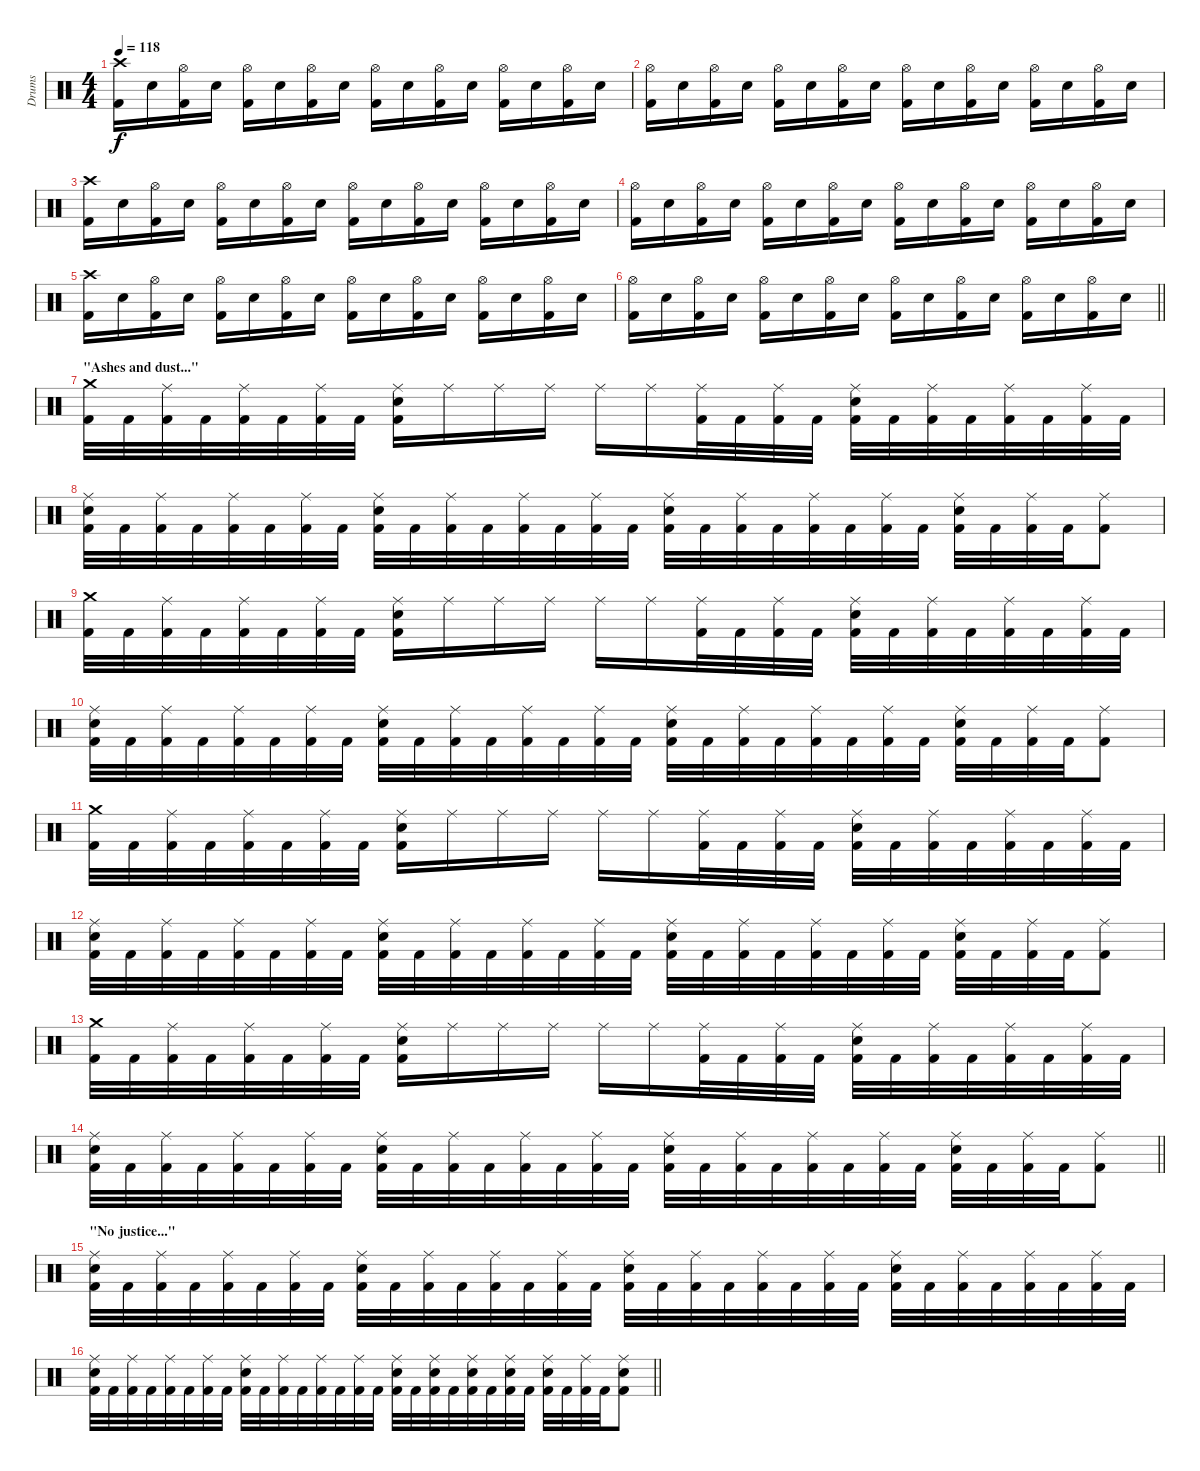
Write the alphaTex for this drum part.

\track ("Drums" "Drums") {instrument percussion}
\staff {score}
\articulation defaults
\ts (4 4)
\tempo 118
\clef neutral
\ks c
("Crash high (hit)" "Kick (hit) 2").16{dy f} "Electric Snare (hit)".16 ("Hi-Hat (open)" "Kick (hit) 2").16 "Electric Snare (hit)".16 ("Hi-Hat (open)" "Kick (hit) 2").16 "Electric Snare (hit)".16 ("Hi-Hat (open)" "Kick (hit) 2").16 "Electric Snare (hit)".16 ("Hi-Hat (open)" "Kick (hit) 2").16 "Electric Snare (hit)".16 ("Hi-Hat (open)" "Kick (hit) 2").16 "Electric Snare (hit)".16 ("Hi-Hat (open)" "Kick (hit) 2").16 "Electric Snare (hit)".16 ("Hi-Hat (open)" "Kick (hit) 2").16 "Electric Snare (hit)".16 |
("Hi-Hat (open)" "Kick (hit) 2").16 "Electric Snare (hit)".16 ("Hi-Hat (open)" "Kick (hit) 2").16 "Electric Snare (hit)".16 ("Hi-Hat (open)" "Kick (hit) 2").16 "Electric Snare (hit)".16 ("Hi-Hat (open)" "Kick (hit) 2").16 "Electric Snare (hit)".16 ("Hi-Hat (open)" "Kick (hit) 2").16 "Electric Snare (hit)".16 ("Hi-Hat (open)" "Kick (hit) 2").16 "Electric Snare (hit)".16 ("Hi-Hat (open)" "Kick (hit) 2").16 "Electric Snare (hit)".16 ("Hi-Hat (open)" "Kick (hit) 2").16 "Electric Snare (hit)".16 |
("Crash high (hit)" "Kick (hit) 2").16 "Electric Snare (hit)".16 ("Hi-Hat (open)" "Kick (hit) 2").16 "Electric Snare (hit)".16 ("Hi-Hat (open)" "Kick (hit) 2").16 "Electric Snare (hit)".16 ("Hi-Hat (open)" "Kick (hit) 2").16 "Electric Snare (hit)".16 ("Hi-Hat (open)" "Kick (hit) 2").16 "Electric Snare (hit)".16 ("Hi-Hat (open)" "Kick (hit) 2").16 "Electric Snare (hit)".16 ("Hi-Hat (open)" "Kick (hit) 2").16 "Electric Snare (hit)".16 ("Hi-Hat (open)" "Kick (hit) 2").16 "Electric Snare (hit)".16 |
("Hi-Hat (open)" "Kick (hit) 2").16 "Electric Snare (hit)".16 ("Hi-Hat (open)" "Kick (hit) 2").16 "Electric Snare (hit)".16 ("Hi-Hat (open)" "Kick (hit) 2").16 "Electric Snare (hit)".16 ("Hi-Hat (open)" "Kick (hit) 2").16 "Electric Snare (hit)".16 ("Hi-Hat (open)" "Kick (hit) 2").16 "Electric Snare (hit)".16 ("Hi-Hat (open)" "Kick (hit) 2").16 "Electric Snare (hit)".16 ("Hi-Hat (open)" "Kick (hit) 2").16 "Electric Snare (hit)".16 ("Hi-Hat (open)" "Kick (hit) 2").16 "Electric Snare (hit)".16 |
("Crash high (hit)" "Kick (hit) 2").16 "Electric Snare (hit)".16 ("Hi-Hat (open)" "Kick (hit) 2").16 "Electric Snare (hit)".16 ("Hi-Hat (open)" "Kick (hit) 2").16 "Electric Snare (hit)".16 ("Hi-Hat (open)" "Kick (hit) 2").16 "Electric Snare (hit)".16 ("Hi-Hat (open)" "Kick (hit) 2").16 "Electric Snare (hit)".16 ("Hi-Hat (open)" "Kick (hit) 2").16 "Electric Snare (hit)".16 ("Hi-Hat (open)" "Kick (hit) 2").16 "Electric Snare (hit)".16 ("Hi-Hat (open)" "Kick (hit) 2").16 "Electric Snare (hit)".16 |
\barLineRight lightlight
("Hi-Hat (open)" "Kick (hit) 2").16 "Electric Snare (hit)".16 ("Hi-Hat (open)" "Kick (hit) 2").16 "Electric Snare (hit)".16 ("Hi-Hat (open)" "Kick (hit) 2").16 "Electric Snare (hit)".16 ("Hi-Hat (open)" "Kick (hit) 2").16 "Electric Snare (hit)".16 ("Hi-Hat (open)" "Kick (hit) 2").16 "Electric Snare (hit)".16 ("Hi-Hat (open)" "Kick (hit) 2").16 "Electric Snare (hit)".16 ("Hi-Hat (open)" "Kick (hit) 2").16 "Electric Snare (hit)".16 ("Hi-Hat (open)" "Kick (hit) 2").16 "Electric Snare (hit)".16 |
\section ("" "\"Ashes and dust...\"")
("Crash medium (hit)" "Kick (hit) 2").32 "Kick (hit) 2".32 ("Ride (middle)" "Kick (hit) 2").32 "Kick (hit) 2".32 ("Ride (middle)" "Kick (hit) 2").32 "Kick (hit) 2".32 ("Ride (middle)" "Kick (hit) 2").32 "Kick (hit) 2".32 ("Ride (middle)" "Electric Snare (hit)" "Kick (hit) 2").16 "Ride (middle)".16 "Ride (middle)".16 "Ride (middle)".16 "Ride (middle)".16 "Ride (middle)".16 ("Ride (middle)" "Kick (hit) 2").32 "Kick (hit) 2".32 ("Ride (middle)" "Kick (hit) 2").32 "Kick (hit) 2".32 ("Ride (middle)" "Electric Snare (hit)" "Kick (hit) 2").32 "Kick (hit) 2".32 ("Ride (middle)" "Kick (hit) 2").32 "Kick (hit) 2".32 ("Ride (middle)" "Kick (hit) 2").32 "Kick (hit) 2".32 ("Ride (middle)" "Kick (hit) 2").32 "Kick (hit) 2".32 |
("Ride (middle)" "Electric Snare (hit)" "Kick (hit) 2").32 "Kick (hit) 2".32 ("Ride (middle)" "Kick (hit) 2").32 "Kick (hit) 2".32 ("Ride (middle)" "Kick (hit) 2").32 "Kick (hit) 2".32 ("Ride (middle)" "Kick (hit) 2").32 "Kick (hit) 2".32 ("Ride (middle)" "Electric Snare (hit)" "Kick (hit) 2").32 "Kick (hit) 2".32 ("Ride (middle)" "Kick (hit) 2").32 "Kick (hit) 2".32 ("Ride (middle)" "Kick (hit) 2").32 "Kick (hit) 2".32 ("Ride (middle)" "Kick (hit) 2").32 "Kick (hit) 2".32 ("Ride (middle)" "Electric Snare (hit)" "Kick (hit) 2").32 "Kick (hit) 2".32 ("Ride (middle)" "Kick (hit) 2").32 "Kick (hit) 2".32 ("Ride (middle)" "Kick (hit) 2").32 "Kick (hit) 2".32 ("Ride (middle)" "Kick (hit) 2").32 "Kick (hit) 2".32 ("Ride (middle)" "Electric Snare (hit)" "Kick (hit) 2").32 "Kick (hit) 2".32 ("Ride (middle)" "Kick (hit) 2").32 "Kick (hit) 2".32 ("Ride (middle)" "Kick (hit) 2").8 |
("Crash medium (hit)" "Kick (hit) 2").32 "Kick (hit) 2".32 ("Ride (middle)" "Kick (hit) 2").32 "Kick (hit) 2".32 ("Ride (middle)" "Kick (hit) 2").32 "Kick (hit) 2".32 ("Ride (middle)" "Kick (hit) 2").32 "Kick (hit) 2".32 ("Ride (middle)" "Electric Snare (hit)" "Kick (hit) 2").16 "Ride (middle)".16 "Ride (middle)".16 "Ride (middle)".16 "Ride (middle)".16 "Ride (middle)".16 ("Ride (middle)" "Kick (hit) 2").32 "Kick (hit) 2".32 ("Ride (middle)" "Kick (hit) 2").32 "Kick (hit) 2".32 ("Ride (middle)" "Electric Snare (hit)" "Kick (hit) 2").32 "Kick (hit) 2".32 ("Ride (middle)" "Kick (hit) 2").32 "Kick (hit) 2".32 ("Ride (middle)" "Kick (hit) 2").32 "Kick (hit) 2".32 ("Ride (middle)" "Kick (hit) 2").32 "Kick (hit) 2".32 |
("Ride (middle)" "Electric Snare (hit)" "Kick (hit) 2").32 "Kick (hit) 2".32 ("Ride (middle)" "Kick (hit) 2").32 "Kick (hit) 2".32 ("Ride (middle)" "Kick (hit) 2").32 "Kick (hit) 2".32 ("Ride (middle)" "Kick (hit) 2").32 "Kick (hit) 2".32 ("Ride (middle)" "Electric Snare (hit)" "Kick (hit) 2").32 "Kick (hit) 2".32 ("Ride (middle)" "Kick (hit) 2").32 "Kick (hit) 2".32 ("Ride (middle)" "Kick (hit) 2").32 "Kick (hit) 2".32 ("Ride (middle)" "Kick (hit) 2").32 "Kick (hit) 2".32 ("Ride (middle)" "Electric Snare (hit)" "Kick (hit) 2").32 "Kick (hit) 2".32 ("Ride (middle)" "Kick (hit) 2").32 "Kick (hit) 2".32 ("Ride (middle)" "Kick (hit) 2").32 "Kick (hit) 2".32 ("Ride (middle)" "Kick (hit) 2").32 "Kick (hit) 2".32 ("Ride (middle)" "Electric Snare (hit)" "Kick (hit) 2").32 "Kick (hit) 2".32 ("Ride (middle)" "Kick (hit) 2").32 "Kick (hit) 2".32 ("Ride (middle)" "Kick (hit) 2").8 |
("Crash medium (hit)" "Kick (hit) 2").32 "Kick (hit) 2".32 ("Ride (middle)" "Kick (hit) 2").32 "Kick (hit) 2".32 ("Ride (middle)" "Kick (hit) 2").32 "Kick (hit) 2".32 ("Ride (middle)" "Kick (hit) 2").32 "Kick (hit) 2".32 ("Ride (middle)" "Electric Snare (hit)" "Kick (hit) 2").16 "Ride (middle)".16 "Ride (middle)".16 "Ride (middle)".16 "Ride (middle)".16 "Ride (middle)".16 ("Ride (middle)" "Kick (hit) 2").32 "Kick (hit) 2".32 ("Ride (middle)" "Kick (hit) 2").32 "Kick (hit) 2".32 ("Ride (middle)" "Electric Snare (hit)" "Kick (hit) 2").32 "Kick (hit) 2".32 ("Ride (middle)" "Kick (hit) 2").32 "Kick (hit) 2".32 ("Ride (middle)" "Kick (hit) 2").32 "Kick (hit) 2".32 ("Ride (middle)" "Kick (hit) 2").32 "Kick (hit) 2".32 |
("Ride (middle)" "Electric Snare (hit)" "Kick (hit) 2").32 "Kick (hit) 2".32 ("Ride (middle)" "Kick (hit) 2").32 "Kick (hit) 2".32 ("Ride (middle)" "Kick (hit) 2").32 "Kick (hit) 2".32 ("Ride (middle)" "Kick (hit) 2").32 "Kick (hit) 2".32 ("Ride (middle)" "Electric Snare (hit)" "Kick (hit) 2").32 "Kick (hit) 2".32 ("Ride (middle)" "Kick (hit) 2").32 "Kick (hit) 2".32 ("Ride (middle)" "Kick (hit) 2").32 "Kick (hit) 2".32 ("Ride (middle)" "Kick (hit) 2").32 "Kick (hit) 2".32 ("Ride (middle)" "Electric Snare (hit)" "Kick (hit) 2").32 "Kick (hit) 2".32 ("Ride (middle)" "Kick (hit) 2").32 "Kick (hit) 2".32 ("Ride (middle)" "Kick (hit) 2").32 "Kick (hit) 2".32 ("Ride (middle)" "Kick (hit) 2").32 "Kick (hit) 2".32 ("Ride (middle)" "Electric Snare (hit)" "Kick (hit) 2").32 "Kick (hit) 2".32 ("Ride (middle)" "Kick (hit) 2").32 "Kick (hit) 2".32 ("Ride (middle)" "Kick (hit) 2").8 |
("Crash medium (hit)" "Kick (hit) 2").32 "Kick (hit) 2".32 ("Ride (middle)" "Kick (hit) 2").32 "Kick (hit) 2".32 ("Ride (middle)" "Kick (hit) 2").32 "Kick (hit) 2".32 ("Ride (middle)" "Kick (hit) 2").32 "Kick (hit) 2".32 ("Ride (middle)" "Electric Snare (hit)" "Kick (hit) 2").16 "Ride (middle)".16 "Ride (middle)".16 "Ride (middle)".16 "Ride (middle)".16 "Ride (middle)".16 ("Ride (middle)" "Kick (hit) 2").32 "Kick (hit) 2".32 ("Ride (middle)" "Kick (hit) 2").32 "Kick (hit) 2".32 ("Ride (middle)" "Electric Snare (hit)" "Kick (hit) 2").32 "Kick (hit) 2".32 ("Ride (middle)" "Kick (hit) 2").32 "Kick (hit) 2".32 ("Ride (middle)" "Kick (hit) 2").32 "Kick (hit) 2".32 ("Ride (middle)" "Kick (hit) 2").32 "Kick (hit) 2".32 |
\barLineRight lightlight
("Ride (middle)" "Electric Snare (hit)" "Kick (hit) 2").32 "Kick (hit) 2".32 ("Ride (middle)" "Kick (hit) 2").32 "Kick (hit) 2".32 ("Ride (middle)" "Kick (hit) 2").32 "Kick (hit) 2".32 ("Ride (middle)" "Kick (hit) 2").32 "Kick (hit) 2".32 ("Ride (middle)" "Electric Snare (hit)" "Kick (hit) 2").32 "Kick (hit) 2".32 ("Ride (middle)" "Kick (hit) 2").32 "Kick (hit) 2".32 ("Ride (middle)" "Kick (hit) 2").32 "Kick (hit) 2".32 ("Ride (middle)" "Kick (hit) 2").32 "Kick (hit) 2".32 ("Ride (middle)" "Electric Snare (hit)" "Kick (hit) 2").32 "Kick (hit) 2".32 ("Ride (middle)" "Kick (hit) 2").32 "Kick (hit) 2".32 ("Ride (middle)" "Kick (hit) 2").32 "Kick (hit) 2".32 ("Ride (middle)" "Kick (hit) 2").32 "Kick (hit) 2".32 ("Ride (middle)" "Electric Snare (hit)" "Kick (hit) 2").32 "Kick (hit) 2".32 ("Ride (middle)" "Kick (hit) 2").32 "Kick (hit) 2".32 ("Ride (middle)" "Kick (hit) 2").8 |
\section ("" "\"No justice...\"")
("Ride (middle)" "Electric Snare (hit)" "Kick (hit) 2").32 "Kick (hit) 2".32 ("Ride (middle)" "Kick (hit) 2").32 "Kick (hit) 2".32 ("Ride (middle)" "Kick (hit) 2").32 "Kick (hit) 2".32 ("Ride (middle)" "Kick (hit) 2").32 "Kick (hit) 2".32 ("Ride (middle)" "Electric Snare (hit)" "Kick (hit) 2").32 "Kick (hit) 2".32 ("Ride (middle)" "Kick (hit) 2").32 "Kick (hit) 2".32 ("Ride (middle)" "Kick (hit) 2").32 "Kick (hit) 2".32 ("Ride (middle)" "Kick (hit) 2").32 "Kick (hit) 2".32 ("Ride (middle)" "Electric Snare (hit)" "Kick (hit) 2").32 "Kick (hit) 2".32 ("Ride (middle)" "Kick (hit) 2").32 "Kick (hit) 2".32 ("Ride (middle)" "Kick (hit) 2").32 "Kick (hit) 2".32 ("Ride (middle)" "Kick (hit) 2").32 "Kick (hit) 2".32 ("Ride (middle)" "Electric Snare (hit)" "Kick (hit) 2").32 "Kick (hit) 2".32 ("Ride (middle)" "Kick (hit) 2").32 "Kick (hit) 2".32 ("Ride (middle)" "Kick (hit) 2").32 "Kick (hit) 2".32 ("Ride (middle)" "Kick (hit) 2").32 "Kick (hit) 2".32 |
\barLineRight lightlight
("Ride (middle)" "Electric Snare (hit)" "Kick (hit) 2").32 "Kick (hit) 2".32 ("Ride (middle)" "Kick (hit) 2").32 "Kick (hit) 2".32 ("Ride (middle)" "Kick (hit) 2").32 "Kick (hit) 2".32 ("Ride (middle)" "Kick (hit) 2").32 "Kick (hit) 2".32 ("Ride (middle)" "Electric Snare (hit)" "Kick (hit) 2").32 "Kick (hit) 2".32 ("Ride (middle)" "Kick (hit) 2").32 "Kick (hit) 2".32 ("Ride (middle)" "Kick (hit) 2").32 "Kick (hit) 2".32 ("Ride (middle)" "Kick (hit) 2").32 "Kick (hit) 2".32 ("Ride (middle)" "Electric Snare (hit)" "Kick (hit) 2").32 "Kick (hit) 2".32 ("Ride (middle)" "Electric Snare (hit)" "Kick (hit) 2").32 "Kick (hit) 2".32 ("Ride (middle)" "Electric Snare (hit)" "Kick (hit) 2").32 "Kick (hit) 2".32 ("Ride (middle)" "Electric Snare (hit)" "Kick (hit) 2").32 "Kick (hit) 2".32 ("Ride (middle)" "Electric Snare (hit)" "Kick (hit) 2").32 "Kick (hit) 2".32 ("Ride (middle)" "Kick (hit) 2").32 "Kick (hit) 2".32 ("Ride (middle)" "Electric Snare (hit)" "Kick (hit) 2").8
